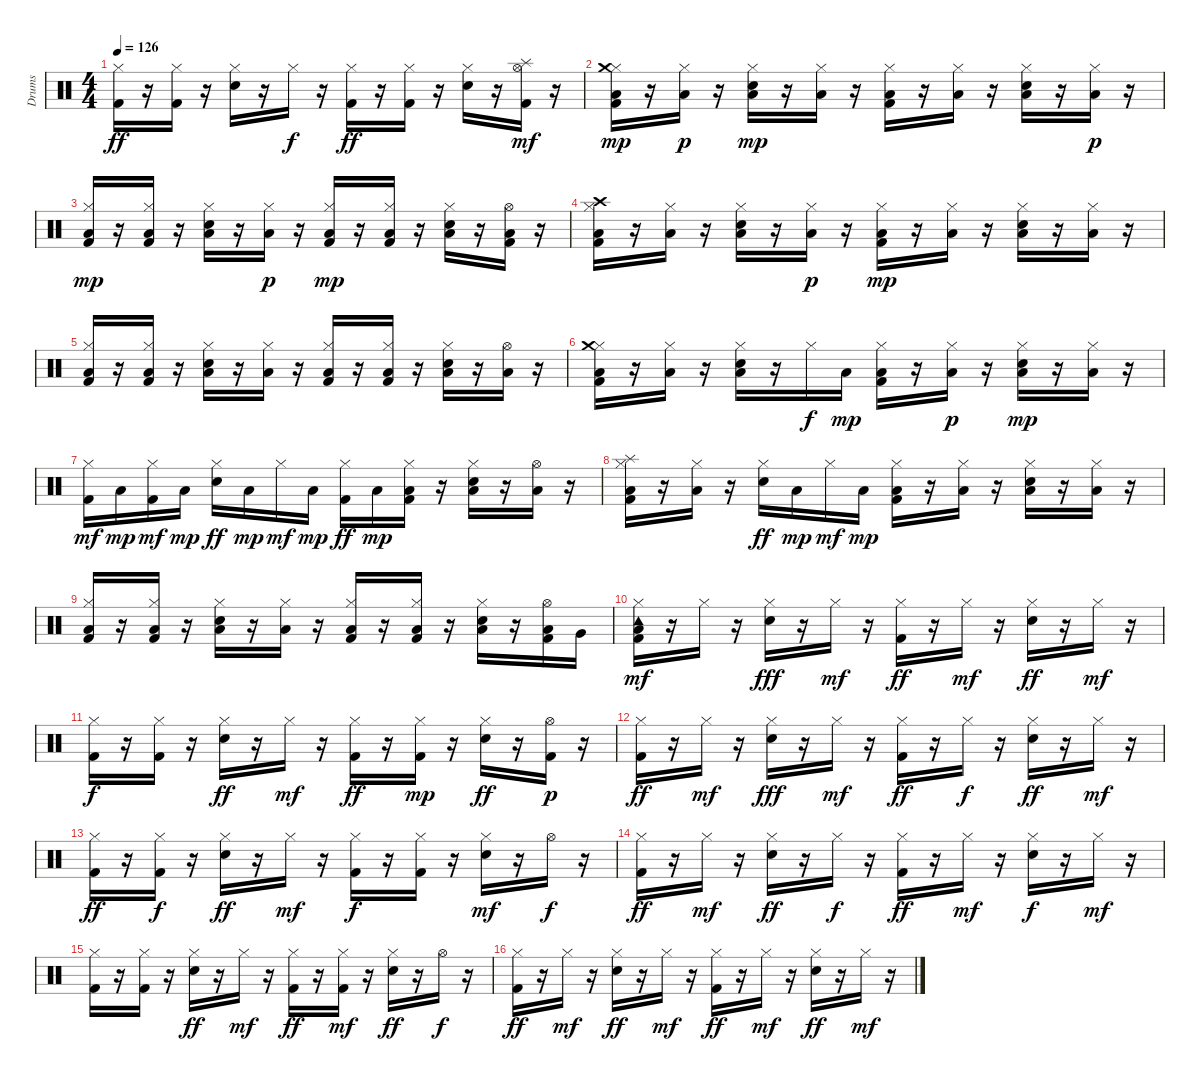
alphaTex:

\track ("Drums" "Drums") {instrument percussion}
\staff {score}
\articulation defaults
\ts (4 4)
\tempo 126
\clef neutral
\ks c
("Kick (hit) 2" "Hi-Hat (closed)").16{dy ff} r.16 ("Hi-Hat (closed)" "Kick (hit) 2").16 r.16 ("Hi-Hat (closed)" "Snare (hit) 2").16 r.16 "Hi-Hat (closed)".16{dy f} r.16 ("Kick (hit) 2" "Hi-Hat (closed)").16{dy ff} r.16 ("Hi-Hat (closed)" "Kick (hit) 2").16 r.16 ("Hi-Hat (closed)" "Snare (hit) 2").16 r.16 ("Hi-Hat (open)" "Kick (hit) 2" "Splash (hit)").16{dy mf} r.16 |
("Kick (hit) 2" "Hi-Hat (closed)" "Low Floor Tom (hit)" "Crash medium (hit)").16{dy mp} r.16 ("Hi-Hat (closed)" "Low Floor Tom (hit)").16{dy p} r.16 ("Hi-Hat (closed)" "Snare (hit) 2" "Low Floor Tom (hit)").16{dy mp} r.16 ("Hi-Hat (closed)" "Low Floor Tom (hit)").16 r.16 ("Kick (hit) 2" "Hi-Hat (closed)" "Low Floor Tom (hit)").16 r.16 ("Hi-Hat (closed)" "Low Floor Tom (hit)").16 r.16 ("Hi-Hat (closed)" "Snare (hit) 2" "Low Floor Tom (hit)").16 r.16 ("Hi-Hat (closed)" "Low Floor Tom (hit)").16{dy p} r.16 |
("Kick (hit) 2" "Hi-Hat (closed)" "Low Floor Tom (hit)").16{dy mp} r.16 ("Hi-Hat (closed)" "Kick (hit) 2" "Low Floor Tom (hit)").16 r.16 ("Hi-Hat (closed)" "Snare (hit) 2" "Low Floor Tom (hit)").16 r.16 ("Hi-Hat (closed)" "Low Floor Tom (hit)").16{dy p} r.16 ("Hi-Hat (closed)" "Kick (hit) 2" "Low Floor Tom (hit)").16{dy mp} r.16 ("Kick (hit) 2" "Hi-Hat (closed)" "Low Floor Tom (hit)").16 r.16 ("Hi-Hat (closed)" "Snare (hit) 2" "Low Floor Tom (hit)").16 r.16 ("Hi-Hat (open)" "Kick (hit) 2" "Low Floor Tom (hit)").16 r.16 |
("Hi-Hat (closed)" "Kick (hit) 2" "Low Floor Tom (hit)" "Crash high (hit)").16 r.16 ("Hi-Hat (closed)" "Low Floor Tom (hit)").16 r.16 ("Hi-Hat (closed)" "Snare (hit) 2" "Low Floor Tom (hit)").16 r.16 ("Hi-Hat (closed)" "Low Floor Tom (hit)").16{dy p} r.16 ("Kick (hit) 2" "Hi-Hat (closed)" "Low Floor Tom (hit)").16{dy mp} r.16 ("Hi-Hat (closed)" "Low Floor Tom (hit)").16 r.16 ("Snare (hit) 2" "Hi-Hat (closed)" "Low Floor Tom (hit)").16 r.16 ("Hi-Hat (closed)" "Low Floor Tom (hit)").16 r.16 |
("Hi-Hat (closed)" "Kick (hit) 2" "Low Floor Tom (hit)").16 r.16 ("Kick (hit) 2" "Hi-Hat (closed)" "Low Floor Tom (hit)").16 r.16 ("Hi-Hat (closed)" "Snare (hit) 2" "Low Floor Tom (hit)").16 r.16 ("Hi-Hat (closed)" "Low Floor Tom (hit)").16 r.16 ("Kick (hit) 2" "Hi-Hat (closed)" "Low Floor Tom (hit)").16 r.16 ("Hi-Hat (closed)" "Kick (hit) 2" "Low Floor Tom (hit)").16 r.16 ("Snare (hit) 2" "Hi-Hat (closed)" "Low Floor Tom (hit)").16 r.16 ("Hi-Hat (open)" "Low Floor Tom (hit)").16 r.16 |
("Hi-Hat (closed)" "Kick (hit) 2" "Low Floor Tom (hit)" "Crash medium (hit)").16 r.16 ("Hi-Hat (closed)" "Low Floor Tom (hit)").16 r.16 ("Snare (hit) 2" "Hi-Hat (closed)" "Low Floor Tom (hit)").16 r.16 "Hi-Hat (closed)".16{dy f} "Low Floor Tom (hit)".16{dy mp} ("Kick (hit) 2" "Hi-Hat (closed)" "Low Floor Tom (hit)").16 r.16 ("Hi-Hat (closed)" "Low Floor Tom (hit)").16{dy p} r.16 ("Snare (hit) 2" "Hi-Hat (closed)" "Low Floor Tom (hit)").16{dy mp} r.16 ("Hi-Hat (closed)" "Low Floor Tom (hit)").16 r.16 |
("Kick (hit) 2" "Hi-Hat (closed)").16{dy mf} "Low Floor Tom (hit)".16{dy mp} ("Hi-Hat (closed)" "Kick (hit) 2").16{dy mf} "Low Floor Tom (hit)".16{dy mp} ("Hi-Hat (closed)" "Snare (hit) 2").16{dy ff} "Low Floor Tom (hit)".16{dy mp} "Hi-Hat (closed)".16{dy mf} "Low Floor Tom (hit)".16{dy mp} ("Hi-Hat (closed)" "Kick (hit) 2").16{dy ff} "Low Floor Tom (hit)".16{dy mp} ("Hi-Hat (closed)" "Kick (hit) 2" "Low Floor Tom (hit)").16 r.16 ("Hi-Hat (closed)" "Snare (hit) 2" "Low Floor Tom (hit)").16 r.16 ("Hi-Hat (open)" "Low Floor Tom (hit)").16 r.16 |
("Hi-Hat (closed)" "Kick (hit) 2" "Low Floor Tom (hit)" "Splash (hit)").16 r.16 ("Hi-Hat (closed)" "Low Floor Tom (hit)").16 r.16 ("Hi-Hat (closed)" "Snare (hit) 2").16{dy ff} "Low Floor Tom (hit)".16{dy mp} "Hi-Hat (closed)".16{dy mf} "Low Floor Tom (hit)".16{dy mp} ("Kick (hit) 2" "Hi-Hat (closed)" "Low Floor Tom (hit)").16 r.16 ("Hi-Hat (closed)" "Low Floor Tom (hit)").16 r.16 ("Hi-Hat (closed)" "Snare (hit) 2" "Low Floor Tom (hit)").16 r.16 ("Hi-Hat (closed)" "Low Floor Tom (hit)").16 r.16 |
("Kick (hit) 2" "Hi-Hat (closed)" "Low Floor Tom (hit)").16 r.16 ("Hi-Hat (closed)" "Kick (hit) 2" "Low Floor Tom (hit)").16 r.16 ("Hi-Hat (closed)" "Snare (hit) 2" "Low Floor Tom (hit)").16 r.16 ("Hi-Hat (closed)" "Low Floor Tom (hit)").16 r.16 ("Kick (hit) 2" "Hi-Hat (closed)" "Low Floor Tom (hit)").16 r.16 ("Hi-Hat (closed)" "Kick (hit) 2" "Low Floor Tom (hit)").16 r.16 ("Hi-Hat (closed)" "Snare (hit) 2" "Low Floor Tom (hit)").16 r.16 ("Hi-Hat (open)" "Kick (hit) 2" "Low Floor Tom (hit)").16 "Very Low Tom (hit)".16 |
("Kick (hit) 2" "Hi-Hat (closed)" "Low Floor Tom (hit)" "Tambourine (hit)").16{dy mf} r.16 "Hi-Hat (closed)".16 r.16 ("Hi-Hat (closed)" "Snare (hit) 2").16{dy fff} r.16 "Hi-Hat (closed)".16{dy mf} r.16 ("Kick (hit) 2" "Hi-Hat (closed)").16{dy ff} r.16 "Hi-Hat (closed)".16{dy mf} r.16 ("Hi-Hat (closed)" "Snare (hit) 2").16{dy ff} r.16 "Hi-Hat (closed)".16{dy mf} r.16 |
("Kick (hit) 2" "Hi-Hat (closed)").16{dy f} r.16 ("Hi-Hat (closed)" "Kick (hit) 2").16 r.16 ("Hi-Hat (closed)" "Snare (hit) 2").16{dy ff} r.16 "Hi-Hat (closed)".16{dy mf} r.16 ("Hi-Hat (closed)" "Kick (hit) 2").16{dy ff} r.16 ("Kick (hit) 2" "Hi-Hat (closed)").16{dy mp} r.16 ("Hi-Hat (closed)" "Snare (hit) 2").16{dy ff} r.16 ("Hi-Hat (open)" "Kick (hit) 2").16{dy p} r.16 |
("Hi-Hat (closed)" "Kick (hit) 2").16{dy ff} r.16 "Hi-Hat (closed)".16{dy mf} r.16 ("Hi-Hat (closed)" "Snare (hit) 2").16{dy fff} r.16 "Hi-Hat (closed)".16{dy mf} r.16 ("Kick (hit) 2" "Hi-Hat (closed)").16{dy ff} r.16 "Hi-Hat (closed)".16{dy f} r.16 ("Snare (hit) 2" "Hi-Hat (closed)").16{dy ff} r.16 "Hi-Hat (closed)".16{dy mf} r.16 |
("Hi-Hat (closed)" "Kick (hit) 2").16{dy ff} r.16 ("Kick (hit) 2" "Hi-Hat (closed)").16{dy f} r.16 ("Hi-Hat (closed)" "Snare (hit) 2").16{dy ff} r.16 "Hi-Hat (closed)".16{dy mf} r.16 ("Kick (hit) 2" "Hi-Hat (closed)").16{dy f} r.16 ("Hi-Hat (closed)" "Kick (hit) 2").16 r.16 ("Snare (hit) 2" "Hi-Hat (closed)").16{dy mf} r.16 "Hi-Hat (open)".16{dy f} r.16 |
("Hi-Hat (closed)" "Kick (hit) 2").16{dy ff} r.16 "Hi-Hat (closed)".16{dy mf} r.16 ("Snare (hit) 2" "Hi-Hat (closed)").16{dy ff} r.16 "Hi-Hat (closed)".16{dy f} r.16 ("Kick (hit) 2" "Hi-Hat (closed)").16{dy ff} r.16 "Hi-Hat (closed)".16{dy mf} r.16 ("Snare (hit) 2" "Hi-Hat (closed)").16{dy f} r.16 "Hi-Hat (closed)".16{dy mf} r.16 |
("Kick (hit) 2" "Hi-Hat (closed)").16 r.16 ("Hi-Hat (closed)" "Kick (hit) 2").16 r.16 ("Hi-Hat (closed)" "Snare (hit) 2").16{dy ff} r.16 "Hi-Hat (closed)".16{dy mf} r.16 ("Hi-Hat (closed)" "Kick (hit) 2").16{dy ff} r.16 ("Hi-Hat (closed)" "Kick (hit) 2").16{dy mf} r.16 ("Hi-Hat (closed)" "Snare (hit) 2").16{dy ff} r.16 "Hi-Hat (open)".16{dy f} r.16 |
("Hi-Hat (closed)" "Kick (hit) 2").16{dy ff} r.16 "Hi-Hat (closed)".16{dy mf} r.16 ("Hi-Hat (closed)" "Snare (hit) 2").16{dy ff} r.16 "Hi-Hat (closed)".16{dy mf} r.16 ("Kick (hit) 2" "Hi-Hat (closed)").16{dy ff} r.16 "Hi-Hat (closed)".16{dy mf} r.16 ("Hi-Hat (closed)" "Snare (hit) 2").16{dy ff} r.16 "Hi-Hat (closed)".16{dy mf} r.16
